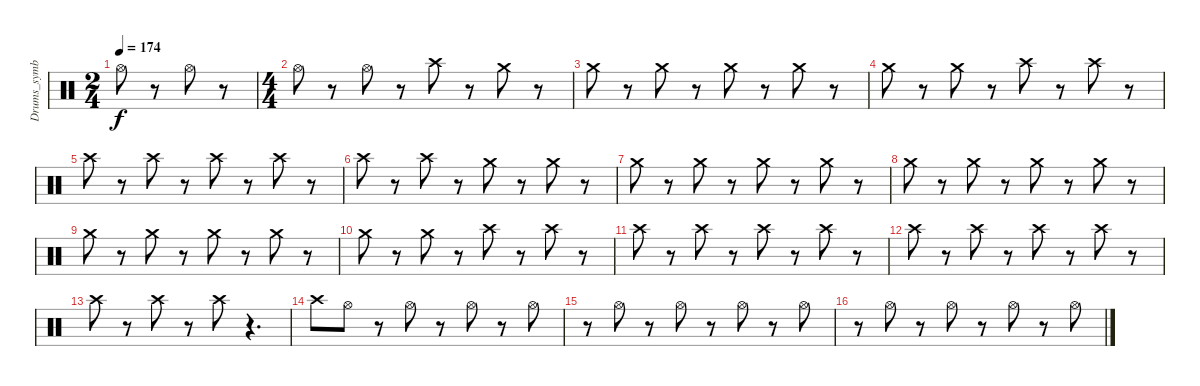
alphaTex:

\track ("Drums_symbal" "Drums_symb") {instrument percussion}
\staff {score}
\articulation defaults
\ts (2 4)
\tempo 174
\clef neutral
\ks c "Hi-Hat (open)".8{dy f}
r.8 "Hi-Hat (open)".8 r.8 |
\ts (4 4)
"Hi-Hat (open)".8 r.8 "Hi-Hat (open)".8 r.8 "Crash high (hit)".8 r.8 "Crash medium (hit)".8 r.8 |
"Crash medium (hit)".8 r.8 "Crash medium (hit)".8 r.8 "Crash medium (hit)".8 r.8 "Crash medium (hit)".8 r.8 |
"Crash medium (hit)".8 r.8 "Crash medium (hit)".8 r.8 "Crash high (hit)".8 r.8 "Crash high (hit)".8 r.8 |
"Crash high (hit)".8 r.8 "Crash high (hit)".8 r.8 "Crash high (hit)".8 r.8 "Crash high (hit)".8 r.8 |
"Crash high (hit)".8 r.8 "Crash high (hit)".8 r.8 "Crash medium (hit)".8 r.8 "Crash medium (hit)".8 r.8 |
"Crash medium (hit)".8 r.8 "Crash medium (hit)".8 r.8 "Crash medium (hit)".8 r.8 "Crash medium (hit)".8 r.8 |
"Crash medium (hit)".8 r.8 "Crash medium (hit)".8 r.8 "Crash medium (hit)".8 r.8 "Crash medium (hit)".8 r.8 |
"Crash medium (hit)".8 r.8 "Crash medium (hit)".8 r.8 "Crash medium (hit)".8 r.8 "Crash medium (hit)".8 r.8 |
"Crash medium (hit)".8 r.8 "Crash medium (hit)".8 r.8 "Crash high (hit)".8 r.8 "Crash high (hit)".8 r.8 |
"Crash high (hit)".8 r.8 "Crash high (hit)".8 r.8 "Crash high (hit)".8 r.8 "Crash high (hit)".8 r.8 |
"Crash high (hit)".8 r.8 "Crash high (hit)".8 r.8 "Crash high (hit)".8 r.8 "Crash high (hit)".8 r.8 |
"Crash high (hit)".8 r.8 "Crash high (hit)".8 r.8 "Crash high (hit)".8 r.4{d} |
"Crash high (hit)".8 "Hi-Hat (open)".8 r.8 "Hi-Hat (open)".8 r.8 "Hi-Hat (open)".8 r.8 "Hi-Hat (open)".8 |
r.8 "Hi-Hat (open)".8 r.8 "Hi-Hat (open)".8 r.8 "Hi-Hat (open)".8 r.8 "Hi-Hat (open)".8 |
r.8 "Hi-Hat (open)".8 r.8 "Hi-Hat (open)".8 r.8 "Hi-Hat (open)".8 r.8 "Hi-Hat (open)".8
